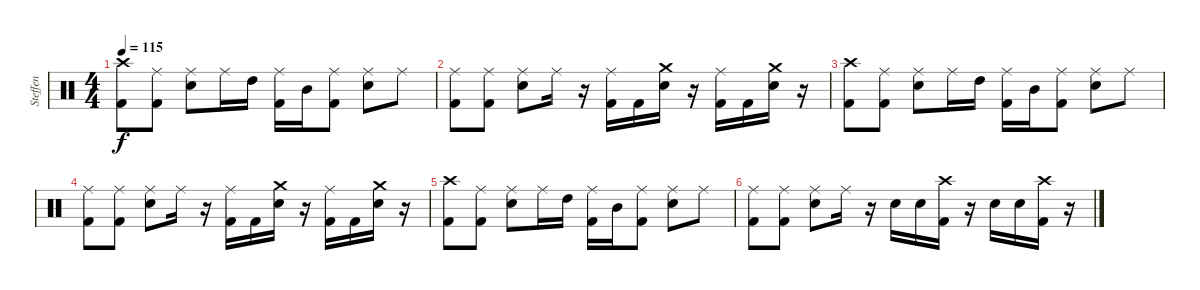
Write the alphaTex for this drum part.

\track ("Steffen" "Steffen") {instrument percussion}
\staff {score}
\articulation defaults
\ts (4 4)
\tempo 115
\clef neutral
\ks c
("Crash high (hit)" "Kick (hit) 2").8{dy f} ("Ride (middle)" "Kick (hit) 2").8 ("Ride (middle)" "Snare (hit) 2").8 "Ride (middle)".16 "High Tom (hit)".16 ("Ride (middle)" "Kick (hit) 2").16 "Mid Tom (hit)".16 ("Ride (middle)" "Kick (hit) 2").8 ("Ride (middle)" "Snare (hit) 2").8 "Ride (middle)".8 |
("Ride (middle)" "Kick (hit) 2").8 ("Ride (middle)" "Kick (hit) 2").8 ("Ride (middle)" "Snare (hit) 2").8 "Ride (middle)".16 r.16 ("Ride (middle)" "Kick (hit) 2").16 "Kick (hit) 2".16 ("Crash medium (hit)" "Snare (hit) 2").16 r.16 ("Ride (middle)" "Kick (hit) 2").16 "Kick (hit) 2".16 ("Crash medium (hit)" "Snare (hit) 2").16 r.16 |
("Crash high (hit)" "Kick (hit) 2").8 ("Ride (middle)" "Kick (hit) 2").8 ("Ride (middle)" "Snare (hit) 2").8 "Ride (middle)".16 "High Tom (hit)".16 ("Ride (middle)" "Kick (hit) 2").16 "Mid Tom (hit)".16 ("Ride (middle)" "Kick (hit) 2").8 ("Ride (middle)" "Snare (hit) 2").8 "Ride (middle)".8 |
("Ride (middle)" "Kick (hit) 2").8 ("Ride (middle)" "Kick (hit) 2").8 ("Ride (middle)" "Snare (hit) 2").8 "Ride (middle)".16 r.16 ("Ride (middle)" "Kick (hit) 2").16 "Kick (hit) 2".16 ("Crash medium (hit)" "Snare (hit) 2").16 r.16 ("Ride (middle)" "Kick (hit) 2").16 "Kick (hit) 2".16 ("Crash medium (hit)" "Snare (hit) 2").16 r.16 |
("Crash high (hit)" "Kick (hit) 2").8 ("Ride (middle)" "Kick (hit) 2").8 ("Ride (middle)" "Snare (hit) 2").8 "Ride (middle)".16 "High Tom (hit)".16 ("Ride (middle)" "Kick (hit) 2").16 "Mid Tom (hit)".16 ("Ride (middle)" "Kick (hit) 2").8 ("Ride (middle)" "Snare (hit) 2").8 "Ride (middle)".8 |
("Ride (middle)" "Kick (hit) 2").8 ("Ride (middle)" "Kick (hit) 2").8 ("Ride (middle)" "Snare (hit) 2").8 "Ride (middle)".16 r.16 "Snare (hit) 2".16 "Snare (hit) 2".16 ("Crash high (hit)" "Kick (hit) 2").16 r.16 "Snare (hit) 2".16 "Snare (hit) 2".16 ("Crash high (hit)" "Kick (hit) 2").16 r.16
